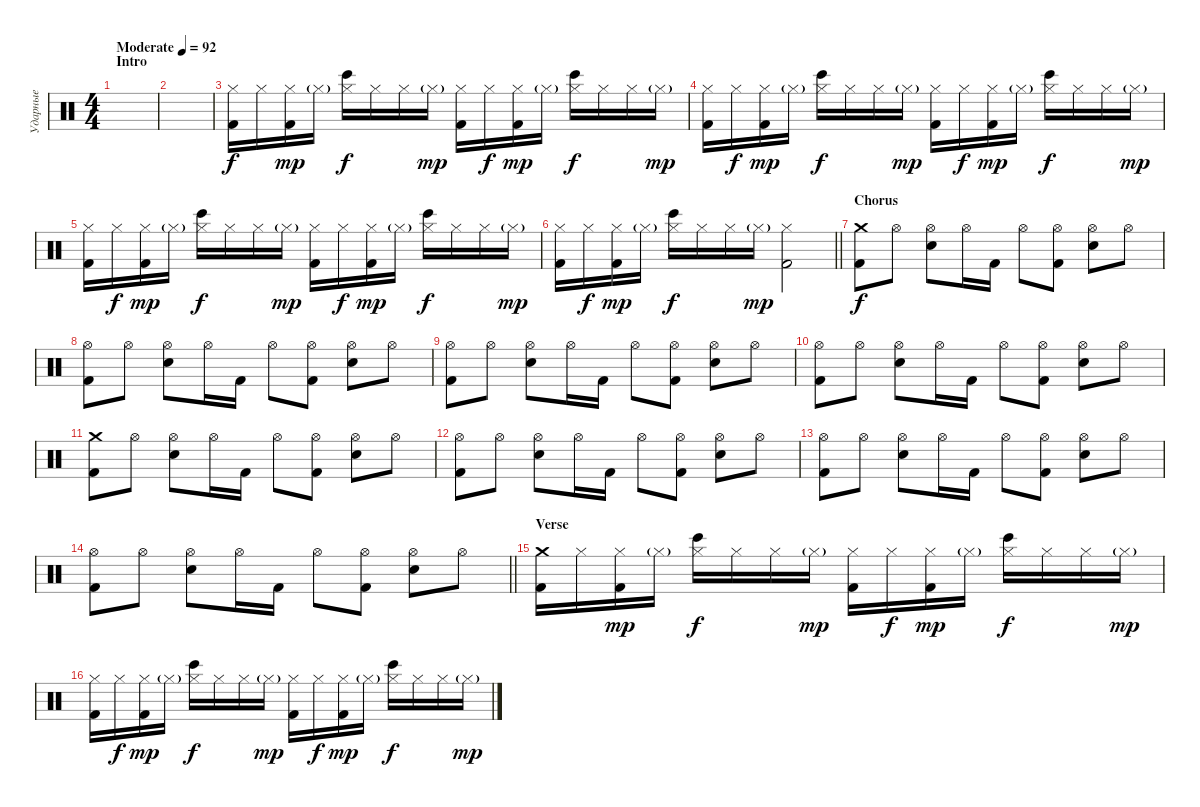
\track ("Ударные" "Ударные") {instrument percussion}
\staff {score}
\articulation defaults
\ts (4 4)
\section ("" "Intro")
\tempo (92 "Moderate")
\clef neutral
\ks c
|
|
("Hi-Hat (closed)" "Kick (hit) 2").16 "Hi-Hat (closed)".16{dy f} ("Hi-Hat (closed)" "Kick (hit) 2").16{dy mp} "Hi-Hat (closed)"{g}.16 ("Hi-Hat (closed)" "Bongo High (hit)").16{dy f} "Hi-Hat (closed)".16 "Hi-Hat (closed)".16 "Hi-Hat (closed)"{g}.16{dy mp} ("Hi-Hat (closed)" "Kick (hit) 2").16 "Hi-Hat (closed)".16{dy f} ("Hi-Hat (closed)" "Kick (hit) 2").16{dy mp} "Hi-Hat (closed)"{g}.16 ("Hi-Hat (closed)" "Bongo High (hit)").16{dy f} "Hi-Hat (closed)".16 "Hi-Hat (closed)".16 "Hi-Hat (closed)"{g}.16{dy mp} |
("Hi-Hat (closed)" "Kick (hit) 2").16 "Hi-Hat (closed)".16{dy f} ("Hi-Hat (closed)" "Kick (hit) 2").16{dy mp} "Hi-Hat (closed)"{g}.16 ("Hi-Hat (closed)" "Bongo High (hit)").16{dy f} "Hi-Hat (closed)".16 "Hi-Hat (closed)".16 "Hi-Hat (closed)"{g}.16{dy mp} ("Hi-Hat (closed)" "Kick (hit) 2").16 "Hi-Hat (closed)".16{dy f} ("Hi-Hat (closed)" "Kick (hit) 2").16{dy mp} "Hi-Hat (closed)"{g}.16 ("Hi-Hat (closed)" "Bongo High (hit)").16{dy f} "Hi-Hat (closed)".16 "Hi-Hat (closed)".16 "Hi-Hat (closed)"{g}.16{dy mp} |
("Hi-Hat (closed)" "Kick (hit) 2").16 "Hi-Hat (closed)".16{dy f} ("Hi-Hat (closed)" "Kick (hit) 2").16{dy mp} "Hi-Hat (closed)"{g}.16 ("Hi-Hat (closed)" "Bongo High (hit)").16{dy f} "Hi-Hat (closed)".16 "Hi-Hat (closed)".16 "Hi-Hat (closed)"{g}.16{dy mp} ("Hi-Hat (closed)" "Kick (hit) 2").16 "Hi-Hat (closed)".16{dy f} ("Hi-Hat (closed)" "Kick (hit) 2").16{dy mp} "Hi-Hat (closed)"{g}.16 ("Hi-Hat (closed)" "Bongo High (hit)").16{dy f} "Hi-Hat (closed)".16 "Hi-Hat (closed)".16 "Hi-Hat (closed)"{g}.16{dy mp} |
\barLineRight lightlight
("Hi-Hat (closed)" "Kick (hit) 2").16 "Hi-Hat (closed)".16{dy f} ("Hi-Hat (closed)" "Kick (hit) 2").16{dy mp} "Hi-Hat (closed)"{g}.16 ("Hi-Hat (closed)" "Bongo High (hit)").16{dy f} "Hi-Hat (closed)".16 "Hi-Hat (closed)".16 "Hi-Hat (closed)"{g}.16{dy mp} ("Hi-Hat (closed)" "Kick (hit) 2").2 |
\section ("" "Chorus")
("Crash medium (hit)" "Kick (hit) 2").8{dy f} "Hi-Hat (open)".8 ("Hi-Hat (open)" "Electric Snare (hit)").8 "Hi-Hat (open)".16 "Kick (hit) 2".16 "Hi-Hat (open)".8 ("Hi-Hat (open)" "Kick (hit) 2").8 ("Hi-Hat (open)" "Electric Snare (hit)").8 "Hi-Hat (open)".8 |
("Hi-Hat (open)" "Kick (hit) 2").8 "Hi-Hat (open)".8 ("Hi-Hat (open)" "Electric Snare (hit)").8 "Hi-Hat (open)".16 "Kick (hit) 2".16 "Hi-Hat (open)".8 ("Hi-Hat (open)" "Kick (hit) 2").8 ("Hi-Hat (open)" "Electric Snare (hit)").8 "Hi-Hat (open)".8 |
("Hi-Hat (open)" "Kick (hit) 2").8 "Hi-Hat (open)".8 ("Hi-Hat (open)" "Electric Snare (hit)").8 "Hi-Hat (open)".16 "Kick (hit) 2".16 "Hi-Hat (open)".8 ("Hi-Hat (open)" "Kick (hit) 2").8 ("Hi-Hat (open)" "Electric Snare (hit)").8 "Hi-Hat (open)".8 |
("Hi-Hat (open)" "Kick (hit) 2").8 "Hi-Hat (open)".8 ("Hi-Hat (open)" "Electric Snare (hit)").8 "Hi-Hat (open)".16 "Kick (hit) 2".16 "Hi-Hat (open)".8 ("Hi-Hat (open)" "Kick (hit) 2").8 ("Hi-Hat (open)" "Electric Snare (hit)").8 "Hi-Hat (open)".8 |
("Crash medium (hit)" "Kick (hit) 2").8 "Hi-Hat (open)".8 ("Hi-Hat (open)" "Electric Snare (hit)").8 "Hi-Hat (open)".16 "Kick (hit) 2".16 "Hi-Hat (open)".8 ("Hi-Hat (open)" "Kick (hit) 2").8 ("Hi-Hat (open)" "Electric Snare (hit)").8 "Hi-Hat (open)".8 |
("Hi-Hat (open)" "Kick (hit) 2").8 "Hi-Hat (open)".8 ("Hi-Hat (open)" "Electric Snare (hit)").8 "Hi-Hat (open)".16 "Kick (hit) 2".16 "Hi-Hat (open)".8 ("Hi-Hat (open)" "Kick (hit) 2").8 ("Hi-Hat (open)" "Electric Snare (hit)").8 "Hi-Hat (open)".8 |
("Hi-Hat (open)" "Kick (hit) 2").8 "Hi-Hat (open)".8 ("Hi-Hat (open)" "Electric Snare (hit)").8 "Hi-Hat (open)".16 "Kick (hit) 2".16 "Hi-Hat (open)".8 ("Hi-Hat (open)" "Kick (hit) 2").8 ("Hi-Hat (open)" "Electric Snare (hit)").8 "Hi-Hat (open)".8 |
\barLineRight lightlight
("Hi-Hat (open)" "Kick (hit) 2").8 "Hi-Hat (open)".8 ("Hi-Hat (open)" "Electric Snare (hit)").8 "Hi-Hat (open)".16 "Kick (hit) 2".16 "Hi-Hat (open)".8 ("Hi-Hat (open)" "Kick (hit) 2").8 ("Hi-Hat (open)" "Electric Snare (hit)").8 "Hi-Hat (open)".8 |
\section ("" "Verse")
("Crash medium (hit)" "Kick (hit) 2").16 "Hi-Hat (closed)".16 ("Hi-Hat (closed)" "Kick (hit) 2").16{dy mp} "Hi-Hat (closed)"{g}.16 ("Hi-Hat (closed)" "Bongo High (hit)").16{dy f} "Hi-Hat (closed)".16 "Hi-Hat (closed)".16 "Hi-Hat (closed)"{g}.16{dy mp} ("Hi-Hat (closed)" "Kick (hit) 2").16 "Hi-Hat (closed)".16{dy f} ("Hi-Hat (closed)" "Kick (hit) 2").16{dy mp} "Hi-Hat (closed)"{g}.16 ("Hi-Hat (closed)" "Bongo High (hit)").16{dy f} "Hi-Hat (closed)".16 "Hi-Hat (closed)".16 "Hi-Hat (closed)"{g}.16{dy mp} |
("Hi-Hat (closed)" "Kick (hit) 2").16 "Hi-Hat (closed)".16{dy f} ("Hi-Hat (closed)" "Kick (hit) 2").16{dy mp} "Hi-Hat (closed)"{g}.16 ("Hi-Hat (closed)" "Bongo High (hit)").16{dy f} "Hi-Hat (closed)".16 "Hi-Hat (closed)".16 "Hi-Hat (closed)"{g}.16{dy mp} ("Hi-Hat (closed)" "Kick (hit) 2").16 "Hi-Hat (closed)".16{dy f} ("Hi-Hat (closed)" "Kick (hit) 2").16{dy mp} "Hi-Hat (closed)"{g}.16 ("Hi-Hat (closed)" "Bongo High (hit)").16{dy f} "Hi-Hat (closed)".16 "Hi-Hat (closed)".16 "Hi-Hat (closed)"{g}.16{dy mp}
